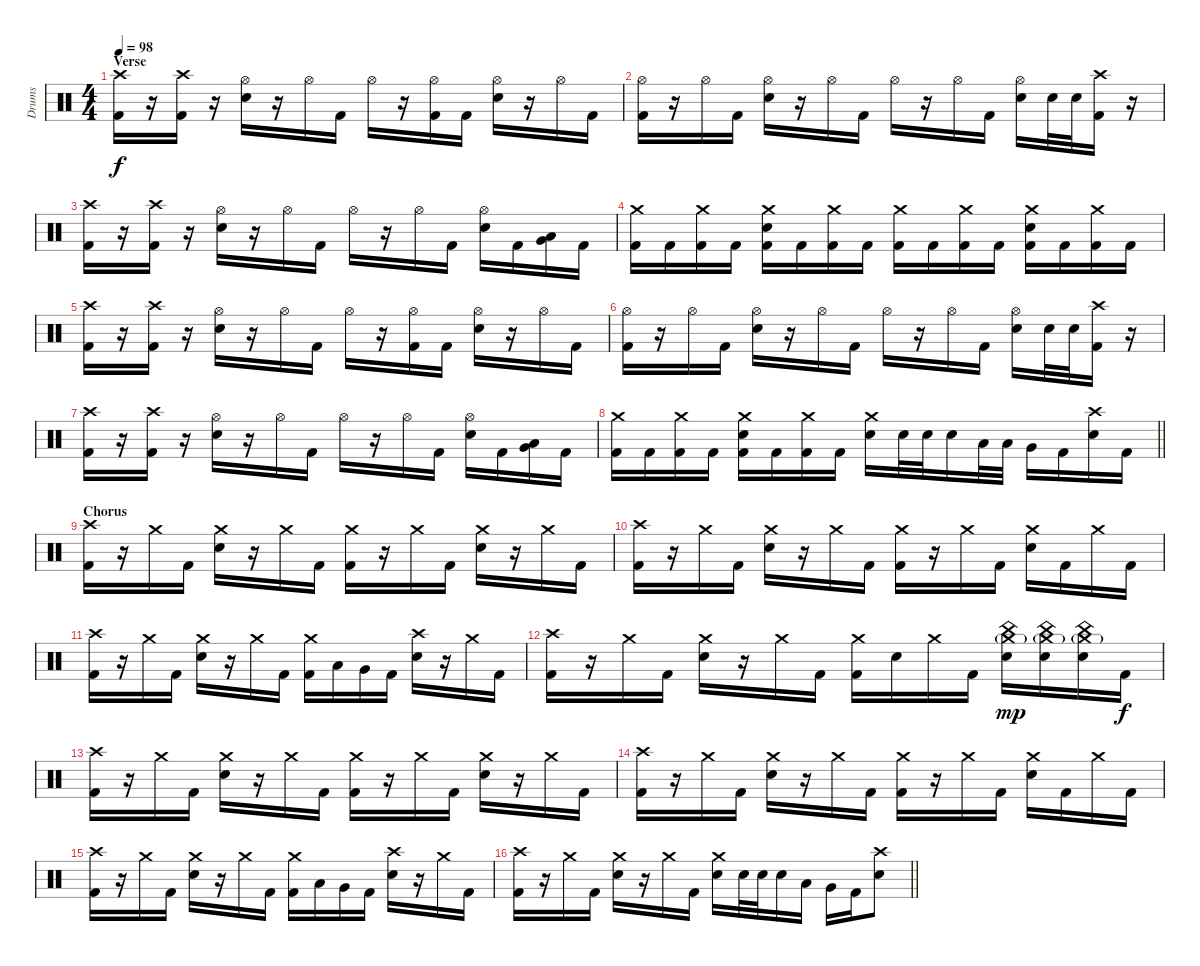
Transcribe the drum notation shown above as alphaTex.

\track ("Drums" "Drums") {instrument percussion}
\staff {score}
\articulation defaults
\ts (4 4)
\section ("" "Verse")
\tempo 98
\clef neutral
\ks c
("Crash high (hit)" "Kick (hit) 2").16{dy f} r.16 ("Crash high (hit)" "Kick (hit) 2").16 r.16 ("Hi-Hat (open)" "Snare (hit) 2").16 r.16 "Hi-Hat (open)".16 "Kick (hit) 2".16 "Hi-Hat (open)".16 r.16 ("Hi-Hat (open)" "Kick (hit) 2").16 "Kick (hit) 2".16 ("Hi-Hat (open)" "Snare (hit) 2").16 r.16 "Hi-Hat (open)".16 "Kick (hit) 2".16 |
("Hi-Hat (open)" "Kick (hit) 2").16 r.16 "Hi-Hat (open)".16 "Kick (hit) 2".16 ("Hi-Hat (open)" "Snare (hit) 2").16 r.16 "Hi-Hat (open)".16 "Kick (hit) 2".16 "Hi-Hat (open)".16 r.16 "Hi-Hat (open)".16 "Kick (hit) 2".16 ("Hi-Hat (open)" "Snare (hit) 2").16 "Snare (hit) 2".32 "Snare (hit) 2".32 ("Crash high (hit)" "Kick (hit) 2").16 r.16 |
("Crash high (hit)" "Kick (hit) 2").16 r.16 ("Crash high (hit)" "Kick (hit) 2").16 r.16 ("Hi-Hat (open)" "Snare (hit) 2").16 r.16 "Hi-Hat (open)".16 "Kick (hit) 2".16 "Hi-Hat (open)".16 r.16 "Hi-Hat (open)".16 "Kick (hit) 2".16 ("Hi-Hat (open)" "Snare (hit) 2").16 "Kick (hit) 2".16 ("Low Tom (hit)" "Very Low Tom (hit)").16 "Kick (hit) 2".16 |
("Crash medium (hit)" "Kick (hit) 2").16 "Kick (hit) 2".16 ("Crash medium (hit)" "Kick (hit) 2").16 "Kick (hit) 2".16 ("Crash medium (hit)" "Snare (hit) 2" "Kick (hit) 2").16 "Kick (hit) 2".16 ("Crash medium (hit)" "Kick (hit) 2").16 "Kick (hit) 2".16 ("Crash medium (hit)" "Kick (hit) 2").16 "Kick (hit) 2".16 ("Crash medium (hit)" "Kick (hit) 2").16 "Kick (hit) 2".16 ("Crash medium (hit)" "Snare (hit) 2" "Kick (hit) 2").16 "Kick (hit) 2".16 ("Crash medium (hit)" "Kick (hit) 2").16 "Kick (hit) 2".16 |
("Crash high (hit)" "Kick (hit) 2").16 r.16 ("Crash high (hit)" "Kick (hit) 2").16 r.16 ("Hi-Hat (open)" "Snare (hit) 2").16 r.16 "Hi-Hat (open)".16 "Kick (hit) 2".16 "Hi-Hat (open)".16 r.16 ("Hi-Hat (open)" "Kick (hit) 2").16 "Kick (hit) 2".16 ("Hi-Hat (open)" "Snare (hit) 2").16 r.16 "Hi-Hat (open)".16 "Kick (hit) 2".16 |
("Hi-Hat (open)" "Kick (hit) 2").16 r.16 "Hi-Hat (open)".16 "Kick (hit) 2".16 ("Hi-Hat (open)" "Snare (hit) 2").16 r.16 "Hi-Hat (open)".16 "Kick (hit) 2".16 "Hi-Hat (open)".16 r.16 "Hi-Hat (open)".16 "Kick (hit) 2".16 ("Hi-Hat (open)" "Snare (hit) 2").16 "Snare (hit) 2".32 "Snare (hit) 2".32 ("Crash high (hit)" "Kick (hit) 2").16 r.16 |
("Crash high (hit)" "Kick (hit) 2").16 r.16 ("Crash high (hit)" "Kick (hit) 2").16 r.16 ("Hi-Hat (open)" "Snare (hit) 2").16 r.16 "Hi-Hat (open)".16 "Kick (hit) 2".16 "Hi-Hat (open)".16 r.16 "Hi-Hat (open)".16 "Kick (hit) 2".16 ("Hi-Hat (open)" "Snare (hit) 2").16 "Kick (hit) 2".16 ("Low Tom (hit)" "Very Low Tom (hit)").16 "Kick (hit) 2".16 |
\barLineRight lightlight
("Crash medium (hit)" "Kick (hit) 2").16 "Kick (hit) 2".16 ("Crash medium (hit)" "Kick (hit) 2").16 "Kick (hit) 2".16 ("Crash medium (hit)" "Snare (hit) 2" "Kick (hit) 2").16 "Kick (hit) 2".16 ("Crash medium (hit)" "Kick (hit) 2").16 "Kick (hit) 2".16 ("Crash medium (hit)" "Snare (hit) 2").16 "Snare (hit) 2".32 "Snare (hit) 2".32 "Snare (hit) 2".16 "Low Tom (hit)".32 "Low Tom (hit)".32 "Very Low Tom (hit)".16 "Kick (hit) 2".16 ("Crash high (hit)" "Snare (hit) 2").16 "Kick (hit) 2".16 |
\section ("" "Chorus")
("Crash high (hit)" "Kick (hit) 2").16 r.16 "Crash medium (hit)".16 "Kick (hit) 2".16 ("Crash medium (hit)" "Snare (hit) 2").16 r.16 "Crash medium (hit)".16 "Kick (hit) 2".16 ("Crash medium (hit)" "Kick (hit) 2").16 r.16 "Crash medium (hit)".16 "Kick (hit) 2".16 ("Crash medium (hit)" "Snare (hit) 2").16 r.16 "Crash medium (hit)".16 "Kick (hit) 2".16 |
("Crash high (hit)" "Kick (hit) 2").16 r.16 "Crash medium (hit)".16 "Kick (hit) 2".16 ("Crash medium (hit)" "Snare (hit) 2").16 r.16 "Crash medium (hit)".16 "Kick (hit) 2".16 ("Crash medium (hit)" "Kick (hit) 2").16 r.16 "Crash medium (hit)".16 "Kick (hit) 2".16 ("Crash medium (hit)" "Snare (hit) 2").16 "Kick (hit) 2".16 "Crash medium (hit)".16 "Kick (hit) 2".16 |
("Crash high (hit)" "Kick (hit) 2").16 r.16 "Crash medium (hit)".16 "Kick (hit) 2".16 ("Crash medium (hit)" "Snare (hit) 2").16 r.16 "Crash medium (hit)".16 "Kick (hit) 2".16 ("Crash medium (hit)" "Kick (hit) 2").16 "Low Tom (hit)".16 "Very Low Tom (hit)".16 "Kick (hit) 2".16 ("Crash high (hit)" "Snare (hit) 2").16 r.16 "Crash medium (hit)".16 "Kick (hit) 2".16 |
("Crash high (hit)" "Kick (hit) 2").16 r.16 "Crash medium (hit)".16 "Kick (hit) 2".16 ("Crash medium (hit)" "Snare (hit) 2").16 r.16 "Crash medium (hit)".16 "Kick (hit) 2".16 ("Crash medium (hit)" "Kick (hit) 2").16 "Snare (hit) 2".16 "Crash medium (hit)".16 "Kick (hit) 2".16 ("China (hit)" "Crash medium (hit)"{g} "Snare (hit) 2").16{dy mp} ("China (hit)" "Crash medium (hit)"{g} "Snare (hit) 2").16 ("China (hit)" "Crash medium (hit)"{g} "Snare (hit) 2").16 "Kick (hit) 2".16{dy f} |
("Crash high (hit)" "Kick (hit) 2").16 r.16 "Crash medium (hit)".16 "Kick (hit) 2".16 ("Crash medium (hit)" "Snare (hit) 2").16 r.16 "Crash medium (hit)".16 "Kick (hit) 2".16 ("Crash medium (hit)" "Kick (hit) 2").16 r.16 "Crash medium (hit)".16 "Kick (hit) 2".16 ("Crash medium (hit)" "Snare (hit) 2").16 r.16 "Crash medium (hit)".16 "Kick (hit) 2".16 |
("Crash high (hit)" "Kick (hit) 2").16 r.16 "Crash medium (hit)".16 "Kick (hit) 2".16 ("Crash medium (hit)" "Snare (hit) 2").16 r.16 "Crash medium (hit)".16 "Kick (hit) 2".16 ("Crash medium (hit)" "Kick (hit) 2").16 r.16 "Crash medium (hit)".16 "Kick (hit) 2".16 ("Crash medium (hit)" "Snare (hit) 2").16 "Kick (hit) 2".16 "Crash medium (hit)".16 "Kick (hit) 2".16 |
("Crash high (hit)" "Kick (hit) 2").16 r.16 "Crash medium (hit)".16 "Kick (hit) 2".16 ("Crash medium (hit)" "Snare (hit) 2").16 r.16 "Crash medium (hit)".16 "Kick (hit) 2".16 ("Crash medium (hit)" "Kick (hit) 2").16 "Low Tom (hit)".16 "Very Low Tom (hit)".16 "Kick (hit) 2".16 ("Crash high (hit)" "Snare (hit) 2").16 r.16 "Crash medium (hit)".16 "Kick (hit) 2".16 |
\barLineRight lightlight
("Crash high (hit)" "Kick (hit) 2").16 r.16 "Crash medium (hit)".16 "Kick (hit) 2".16 ("Crash medium (hit)" "Snare (hit) 2").16 r.16 "Crash medium (hit)".16 "Kick (hit) 2".16 ("Crash medium (hit)" "Snare (hit) 2").16 "Snare (hit) 2".32 "Snare (hit) 2".32 "Snare (hit) 2".16 "Low Tom (hit)".16 "Very Low Tom (hit)".16 "Kick (hit) 2".16 ("Crash high (hit)" "Snare (hit) 2").8
